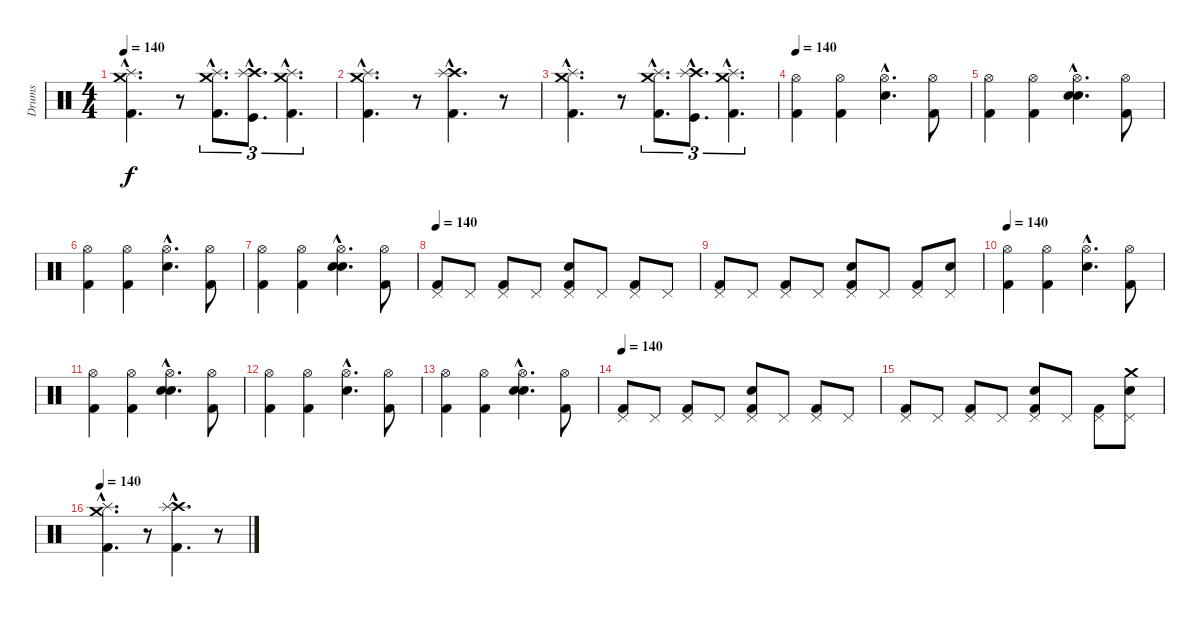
\track ("Drums" "Drums") {instrument percussion}
\staff {score}
\articulation defaults
\ts (4 4)
\tempo 140
\clef neutral
\ks c
("Crash medium (hit)"{hac} "Splash (hit)"{hac} "Kick (hit) 2"{hac}).4{d dy f} r.8 ("Crash medium (hit)"{hac} "Splash (hit)"{hac} "Kick (hit) 2"{hac}).8{d tu (3 2)} ("Crash high (hit)"{hac} "Splash (hit)"{hac} "Kick (hit)"{hac}).8{d tu (3 2)} ("Crash medium (hit)"{hac} "Splash (hit)"{hac} "Kick (hit) 2"{hac}).4{d tu (3 2)} |
("Crash medium (hit)"{hac} "Splash (hit)"{hac} "Kick (hit) 2"{hac}).4{d} r.8 ("Crash high (hit)"{hac} "Splash (hit)"{hac} "Kick (hit) 2"{hac}).4{d} r.8 |
("Crash medium (hit)"{hac} "Splash (hit)"{hac} "Kick (hit) 2"{hac}).4{d} r.8 ("Crash medium (hit)"{hac} "Splash (hit)"{hac} "Kick (hit) 2"{hac}).8{d tu (3 2)} ("Crash high (hit)"{hac} "Splash (hit)"{hac} "Kick (hit)"{hac}).8{d tu (3 2)} ("Crash medium (hit)"{hac} "Splash (hit)"{hac} "Kick (hit) 2"{hac}).4{d tu (3 2)} |
\tempo 140
("Hi-Hat (open)" "Kick (hit) 2").4 ("Hi-Hat (open)" "Kick (hit) 2").4 ("Hi-Hat (open)"{hac} "Snare (hit) 2"{hac}).4{d} ("Hi-Hat (open)" "Kick (hit) 2").8 |
("Hi-Hat (open)" "Kick (hit) 2").4 ("Hi-Hat (open)" "Kick (hit) 2").4 ("Hi-Hat (open)"{hac} "Snare (hit) 2"{hac} "Electric Snare (hit)"{hac}).4{d} ("Hi-Hat (open)" "Kick (hit) 2").8 |
("Hi-Hat (open)" "Kick (hit) 2").4 ("Hi-Hat (open)" "Kick (hit) 2").4 ("Hi-Hat (open)"{hac} "Snare (hit) 2"{hac}).4{d} ("Hi-Hat (open)" "Kick (hit) 2").8 |
("Hi-Hat (open)" "Kick (hit) 2").4 ("Hi-Hat (open)" "Kick (hit) 2").4 ("Hi-Hat (open)"{hac} "Snare (hit) 2"{hac} "Electric Snare (hit)"{hac}).4{d} ("Hi-Hat (open)" "Kick (hit) 2").8 |
\tempo 140
("Pedal Hi-Hat (hit)" "Kick (hit) 2").8 "Pedal Hi-Hat (hit)".8 ("Pedal Hi-Hat (hit)" "Kick (hit) 2").8 "Pedal Hi-Hat (hit)".8 ("Pedal Hi-Hat (hit)" "Snare (hit) 2" "Kick (hit) 2").8 "Pedal Hi-Hat (hit)".8 ("Pedal Hi-Hat (hit)" "Kick (hit) 2").8 "Pedal Hi-Hat (hit)".8 |
("Pedal Hi-Hat (hit)" "Kick (hit) 2").8 "Pedal Hi-Hat (hit)".8 ("Pedal Hi-Hat (hit)" "Kick (hit) 2").8 "Pedal Hi-Hat (hit)".8 ("Pedal Hi-Hat (hit)" "Snare (hit) 2" "Kick (hit) 2").8 "Pedal Hi-Hat (hit)".8 ("Pedal Hi-Hat (hit)" "Kick (hit) 2").8 ("Pedal Hi-Hat (hit)" "Snare (hit) 2").8 |
\tempo 140
("Hi-Hat (open)" "Kick (hit) 2").4 ("Hi-Hat (open)" "Kick (hit) 2").4 ("Hi-Hat (open)"{hac} "Snare (hit) 2"{hac}).4{d} ("Hi-Hat (open)" "Kick (hit) 2").8 |
("Hi-Hat (open)" "Kick (hit) 2").4 ("Hi-Hat (open)" "Kick (hit) 2").4 ("Hi-Hat (open)"{hac} "Snare (hit) 2"{hac} "Electric Snare (hit)"{hac}).4{d} ("Hi-Hat (open)" "Kick (hit) 2").8 |
("Hi-Hat (open)" "Kick (hit) 2").4 ("Hi-Hat (open)" "Kick (hit) 2").4 ("Hi-Hat (open)"{hac} "Snare (hit) 2"{hac}).4{d} ("Hi-Hat (open)" "Kick (hit) 2").8 |
("Hi-Hat (open)" "Kick (hit) 2").4 ("Hi-Hat (open)" "Kick (hit) 2").4 ("Hi-Hat (open)"{hac} "Snare (hit) 2"{hac} "Electric Snare (hit)"{hac}).4{d} ("Hi-Hat (open)" "Kick (hit) 2").8 |
\tempo 140
("Pedal Hi-Hat (hit)" "Kick (hit) 2").8 "Pedal Hi-Hat (hit)".8 ("Pedal Hi-Hat (hit)" "Kick (hit) 2").8 "Pedal Hi-Hat (hit)".8 ("Pedal Hi-Hat (hit)" "Snare (hit) 2" "Kick (hit) 2").8 "Pedal Hi-Hat (hit)".8 ("Pedal Hi-Hat (hit)" "Kick (hit) 2").8 "Pedal Hi-Hat (hit)".8 |
("Pedal Hi-Hat (hit)" "Kick (hit) 2").8 "Pedal Hi-Hat (hit)".8 ("Pedal Hi-Hat (hit)" "Kick (hit) 2").8 "Pedal Hi-Hat (hit)".8 ("Pedal Hi-Hat (hit)" "Snare (hit) 2" "Kick (hit) 2").8 "Pedal Hi-Hat (hit)".8 ("Pedal Hi-Hat (hit)" "Kick (hit) 2").8 ("Crash medium (hit)" "Pedal Hi-Hat (hit)" "Snare (hit) 2").8 |
\tempo 140
("Crash medium (hit)"{hac} "Splash (hit)"{hac} "Kick (hit) 2"{hac}).4{d} r.8 ("Crash high (hit)"{hac} "Splash (hit)"{hac} "Kick (hit) 2"{hac}).4{d} r.8
